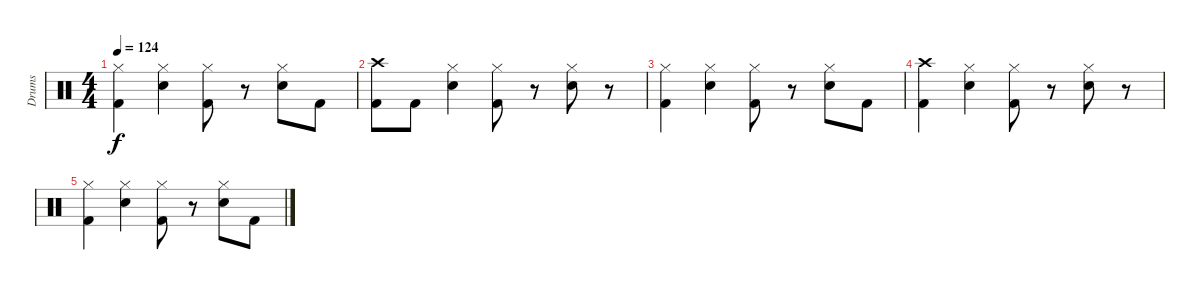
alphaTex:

\track ("Drums" "Drums") {instrument percussion}
\staff {score}
\articulation defaults
\ts (4 4)
\tempo 124
\clef neutral
\ks c
("Hi-Hat (closed)" "Kick (hit) 2").4{dy f} ("Hi-Hat (closed)" "Snare (hit) 2").4 ("Hi-Hat (closed)" "Kick (hit) 2").8 r.8 ("Hi-Hat (closed)" "Snare (hit) 2").8 "Kick (hit) 2".8 |
("Crash high (hit)" "Kick (hit) 2").8 "Kick (hit) 2".8 ("Hi-Hat (closed)" "Snare (hit) 2").4 ("Hi-Hat (closed)" "Kick (hit) 2").8 r.8 ("Hi-Hat (closed)" "Snare (hit) 2").8 r.8 |
("Hi-Hat (closed)" "Kick (hit) 2").4 ("Hi-Hat (closed)" "Snare (hit) 2").4 ("Hi-Hat (closed)" "Kick (hit) 2").8 r.8 ("Hi-Hat (closed)" "Snare (hit) 2").8 "Kick (hit) 2".8 |
("Crash high (hit)" "Kick (hit) 2").4 ("Hi-Hat (closed)" "Snare (hit) 2").4 ("Hi-Hat (closed)" "Kick (hit) 2").8 r.8 ("Hi-Hat (closed)" "Snare (hit) 2").8 r.8 |
("Hi-Hat (closed)" "Kick (hit) 2").4 ("Hi-Hat (closed)" "Snare (hit) 2").4 ("Hi-Hat (closed)" "Kick (hit) 2").8 r.8 ("Hi-Hat (closed)" "Snare (hit) 2").8 "Kick (hit) 2".8
